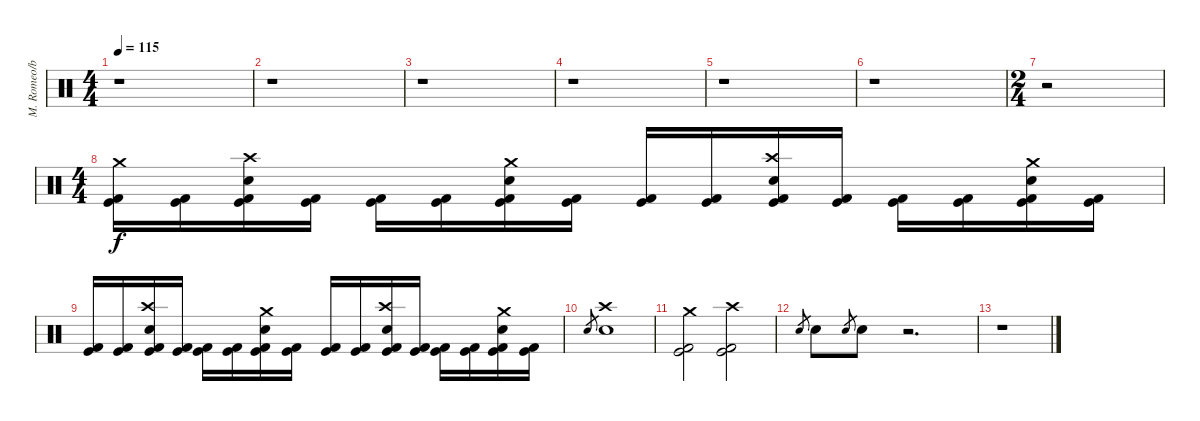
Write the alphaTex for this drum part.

\track ("M. Romeo/bateria" "M. Romeo/b") {instrument percussion}
\staff {score}
\articulation defaults
\ts (4 4)
\tempo 115
\clef neutral
\ks c
r.1{dy f} |
r.1 |
r.1 |
r.1 |
r.1 |
r.1 |
\ts (2 4)
r.2 |
\ts (4 4)
("Crash medium (hit)" "Kick (hit)" "Kick (hit) 2").16 ("Kick (hit)" "Kick (hit) 2").16 ("Crash high (hit)" "Electric Snare (hit)" "Kick (hit)" "Kick (hit) 2").16 ("Kick (hit)" "Kick (hit) 2").16 ("Kick (hit)" "Kick (hit) 2").16 ("Kick (hit)" "Kick (hit) 2").16 ("Crash medium (hit)" "Electric Snare (hit)" "Kick (hit)" "Kick (hit) 2").16 ("Kick (hit)" "Kick (hit) 2").16 ("Kick (hit)" "Kick (hit) 2").16 ("Kick (hit)" "Kick (hit) 2").16 ("Crash high (hit)" "Electric Snare (hit)" "Kick (hit)" "Kick (hit) 2").16 ("Kick (hit)" "Kick (hit) 2").16 ("Kick (hit)" "Kick (hit) 2").16 ("Kick (hit)" "Kick (hit) 2").16 ("Crash medium (hit)" "Electric Snare (hit)" "Kick (hit)" "Kick (hit) 2").16 ("Kick (hit)" "Kick (hit) 2").16 |
("Kick (hit)" "Kick (hit) 2").16 ("Kick (hit)" "Kick (hit) 2").16 ("Crash high (hit)" "Electric Snare (hit)" "Kick (hit)" "Kick (hit) 2").16 ("Kick (hit)" "Kick (hit) 2").16 ("Kick (hit)" "Kick (hit) 2").16 ("Kick (hit)" "Kick (hit) 2").16 ("Crash medium (hit)" "Electric Snare (hit)" "Kick (hit)" "Kick (hit) 2").16 ("Kick (hit)" "Kick (hit) 2").16 ("Kick (hit)" "Kick (hit) 2").16 ("Kick (hit)" "Kick (hit) 2").16 ("Crash high (hit)" "Electric Snare (hit)" "Kick (hit)" "Kick (hit) 2").16 ("Kick (hit)" "Kick (hit) 2").16 ("Kick (hit)" "Kick (hit) 2").16 ("Kick (hit)" "Kick (hit) 2").16 ("Crash medium (hit)" "Electric Snare (hit)" "Kick (hit)" "Kick (hit) 2").16 ("Kick (hit)" "Kick (hit) 2").16 |
"Electric Snare (hit)".8{gr} ("Crash high (hit)" "Electric Snare (hit)").1 |
("Crash medium (hit)" "Kick (hit)" "Kick (hit) 2").2 ("Crash high (hit)" "Kick (hit)" "Kick (hit) 2").2 |
"Electric Snare (hit)".8{gr} "Electric Snare (hit)".8 "Electric Snare (hit)".8{gr} "Electric Snare (hit)".8 r.2{d} |
r.1
